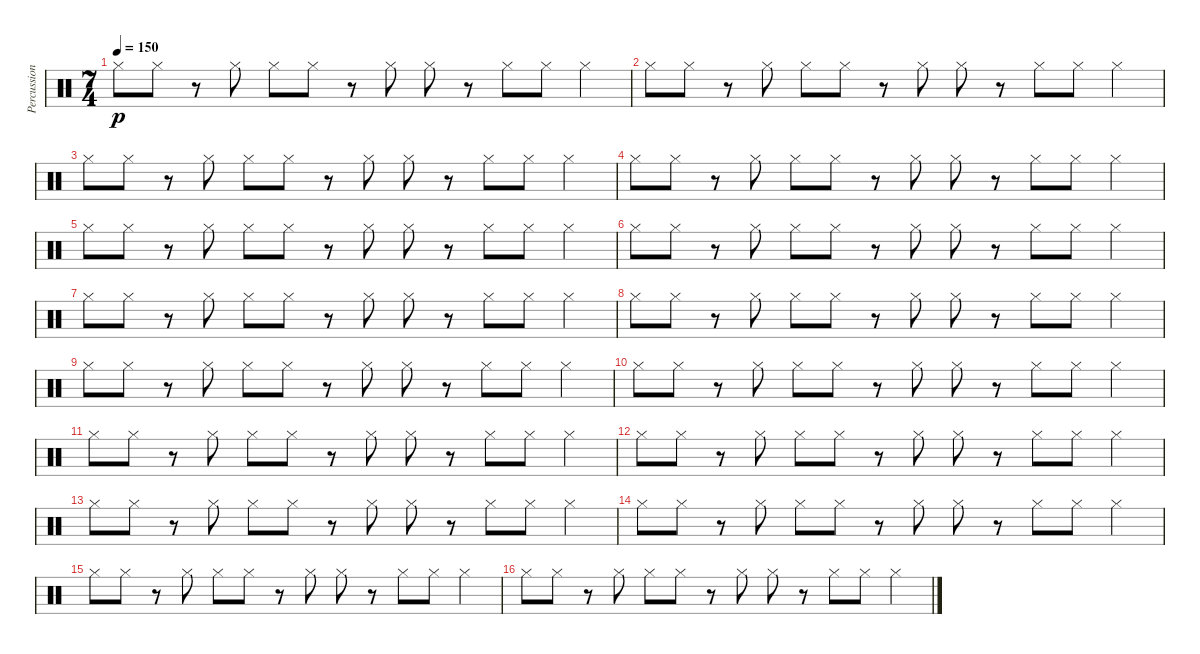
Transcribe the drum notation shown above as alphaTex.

\track ("Percussion" "Percussion") {instrument percussion}
\staff {score}
\articulation defaults
\ts (7 4)
\tempo 150
\clef neutral
\ks c "Hi-Hat (closed)".8{dy p} "Hi-Hat (closed)".8
r.8 "Hi-Hat (closed)".8 "Hi-Hat (closed)".8 "Hi-Hat (closed)".8 r.8 "Hi-Hat (closed)".8 "Hi-Hat (closed)".8 r.8 "Hi-Hat (closed)".8 "Hi-Hat (closed)".8 "Hi-Hat (closed)".4 |
"Hi-Hat (closed)".8 "Hi-Hat (closed)".8 r.8 "Hi-Hat (closed)".8 "Hi-Hat (closed)".8 "Hi-Hat (closed)".8 r.8 "Hi-Hat (closed)".8 "Hi-Hat (closed)".8 r.8 "Hi-Hat (closed)".8 "Hi-Hat (closed)".8 "Hi-Hat (closed)".4 |
"Hi-Hat (closed)".8 "Hi-Hat (closed)".8 r.8 "Hi-Hat (closed)".8 "Hi-Hat (closed)".8 "Hi-Hat (closed)".8 r.8 "Hi-Hat (closed)".8 "Hi-Hat (closed)".8 r.8 "Hi-Hat (closed)".8 "Hi-Hat (closed)".8 "Hi-Hat (closed)".4 |
"Hi-Hat (closed)".8 "Hi-Hat (closed)".8 r.8 "Hi-Hat (closed)".8 "Hi-Hat (closed)".8 "Hi-Hat (closed)".8 r.8 "Hi-Hat (closed)".8 "Hi-Hat (closed)".8 r.8 "Hi-Hat (closed)".8 "Hi-Hat (closed)".8 "Hi-Hat (closed)".4 |
"Hi-Hat (closed)".8 "Hi-Hat (closed)".8 r.8 "Hi-Hat (closed)".8 "Hi-Hat (closed)".8 "Hi-Hat (closed)".8 r.8 "Hi-Hat (closed)".8 "Hi-Hat (closed)".8 r.8 "Hi-Hat (closed)".8 "Hi-Hat (closed)".8 "Hi-Hat (closed)".4 |
"Hi-Hat (closed)".8 "Hi-Hat (closed)".8 r.8 "Hi-Hat (closed)".8 "Hi-Hat (closed)".8 "Hi-Hat (closed)".8 r.8 "Hi-Hat (closed)".8 "Hi-Hat (closed)".8 r.8 "Hi-Hat (closed)".8 "Hi-Hat (closed)".8 "Hi-Hat (closed)".4 |
"Hi-Hat (closed)".8 "Hi-Hat (closed)".8 r.8 "Hi-Hat (closed)".8 "Hi-Hat (closed)".8 "Hi-Hat (closed)".8 r.8 "Hi-Hat (closed)".8 "Hi-Hat (closed)".8 r.8 "Hi-Hat (closed)".8 "Hi-Hat (closed)".8 "Hi-Hat (closed)".4 |
"Hi-Hat (closed)".8 "Hi-Hat (closed)".8 r.8 "Hi-Hat (closed)".8 "Hi-Hat (closed)".8 "Hi-Hat (closed)".8 r.8 "Hi-Hat (closed)".8 "Hi-Hat (closed)".8 r.8 "Hi-Hat (closed)".8 "Hi-Hat (closed)".8 "Hi-Hat (closed)".4 |
"Hi-Hat (closed)".8 "Hi-Hat (closed)".8 r.8 "Hi-Hat (closed)".8 "Hi-Hat (closed)".8 "Hi-Hat (closed)".8 r.8 "Hi-Hat (closed)".8 "Hi-Hat (closed)".8 r.8 "Hi-Hat (closed)".8 "Hi-Hat (closed)".8 "Hi-Hat (closed)".4 |
"Hi-Hat (closed)".8 "Hi-Hat (closed)".8 r.8 "Hi-Hat (closed)".8 "Hi-Hat (closed)".8 "Hi-Hat (closed)".8 r.8 "Hi-Hat (closed)".8 "Hi-Hat (closed)".8 r.8 "Hi-Hat (closed)".8 "Hi-Hat (closed)".8 "Hi-Hat (closed)".4 |
"Hi-Hat (closed)".8 "Hi-Hat (closed)".8 r.8 "Hi-Hat (closed)".8 "Hi-Hat (closed)".8 "Hi-Hat (closed)".8 r.8 "Hi-Hat (closed)".8 "Hi-Hat (closed)".8 r.8 "Hi-Hat (closed)".8 "Hi-Hat (closed)".8 "Hi-Hat (closed)".4 |
"Hi-Hat (closed)".8 "Hi-Hat (closed)".8 r.8 "Hi-Hat (closed)".8 "Hi-Hat (closed)".8 "Hi-Hat (closed)".8 r.8 "Hi-Hat (closed)".8 "Hi-Hat (closed)".8 r.8 "Hi-Hat (closed)".8 "Hi-Hat (closed)".8 "Hi-Hat (closed)".4 |
"Hi-Hat (closed)".8 "Hi-Hat (closed)".8 r.8 "Hi-Hat (closed)".8 "Hi-Hat (closed)".8 "Hi-Hat (closed)".8 r.8 "Hi-Hat (closed)".8 "Hi-Hat (closed)".8 r.8 "Hi-Hat (closed)".8 "Hi-Hat (closed)".8 "Hi-Hat (closed)".4 |
"Hi-Hat (closed)".8 "Hi-Hat (closed)".8 r.8 "Hi-Hat (closed)".8 "Hi-Hat (closed)".8 "Hi-Hat (closed)".8 r.8 "Hi-Hat (closed)".8 "Hi-Hat (closed)".8 r.8 "Hi-Hat (closed)".8 "Hi-Hat (closed)".8 "Hi-Hat (closed)".4 |
"Hi-Hat (closed)".8 "Hi-Hat (closed)".8 r.8 "Hi-Hat (closed)".8 "Hi-Hat (closed)".8 "Hi-Hat (closed)".8 r.8 "Hi-Hat (closed)".8 "Hi-Hat (closed)".8 r.8 "Hi-Hat (closed)".8 "Hi-Hat (closed)".8 "Hi-Hat (closed)".4 |
"Hi-Hat (closed)".8 "Hi-Hat (closed)".8 r.8 "Hi-Hat (closed)".8 "Hi-Hat (closed)".8 "Hi-Hat (closed)".8 r.8 "Hi-Hat (closed)".8 "Hi-Hat (closed)".8 r.8 "Hi-Hat (closed)".8 "Hi-Hat (closed)".8 "Hi-Hat (closed)".4
